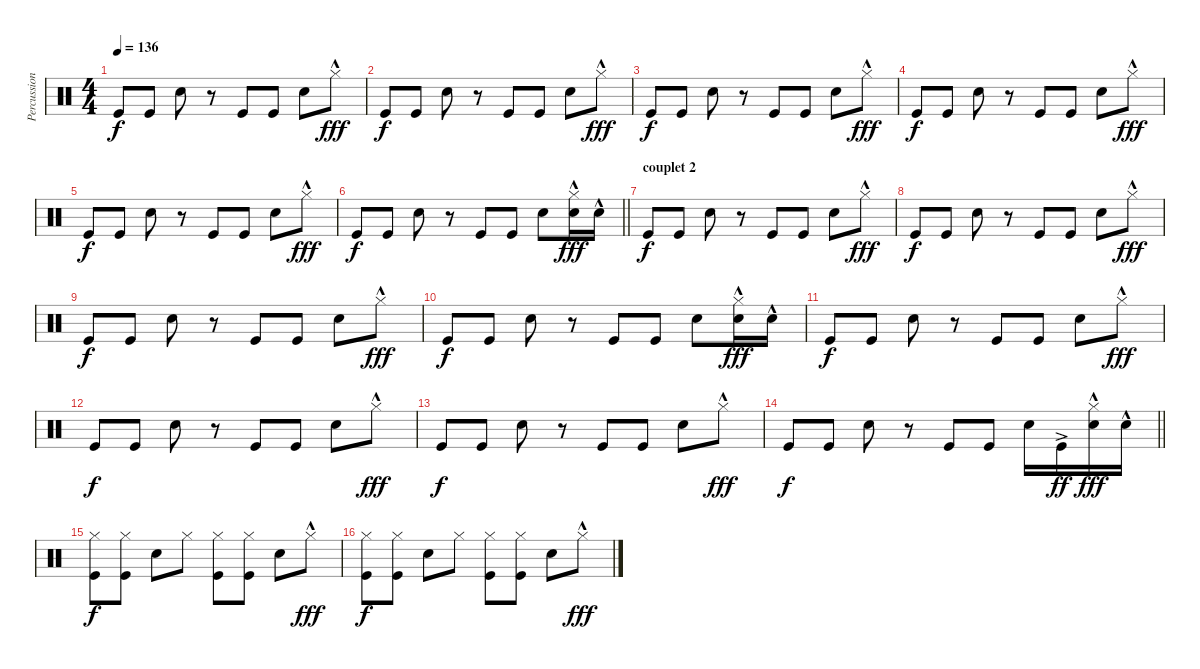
\track ("Percussions" "Percussion") {instrument percussion}
\staff {score}
\articulation defaults
\ts (4 4)
\tempo 136
\clef neutral
\ks c "Kick (hit)".8{dy f} "Kick (hit)".8 "Snare (hit) 2".8
r.8 "Kick (hit)".8 "Kick (hit)".8 "Snare (hit) 2".8 "Hi-Hat (closed)"{hac}.8{dy fff} |
"Kick (hit)".8{dy f} "Kick (hit)".8 "Snare (hit) 2".8 r.8 "Kick (hit)".8 "Kick (hit)".8 "Snare (hit) 2".8 "Hi-Hat (closed)"{hac}.8{dy fff} |
"Kick (hit)".8{dy f} "Kick (hit)".8 "Snare (hit) 2".8 r.8 "Kick (hit)".8 "Kick (hit)".8 "Snare (hit) 2".8 "Hi-Hat (closed)"{hac}.8{dy fff} |
"Kick (hit)".8{dy f} "Kick (hit)".8 "Snare (hit) 2".8 r.8 "Kick (hit)".8 "Kick (hit)".8 "Snare (hit) 2".8 "Hi-Hat (closed)"{hac}.8{dy fff} |
"Kick (hit)".8{dy f} "Kick (hit)".8 "Snare (hit) 2".8 r.8 "Kick (hit)".8 "Kick (hit)".8 "Snare (hit) 2".8 "Hi-Hat (closed)"{hac}.8{dy fff} |
\barLineRight lightlight "Kick (hit)".8{dy f} "Kick (hit)".8 "Snare (hit) 2".8
r.8 "Kick (hit)".8 "Kick (hit)".8 "Snare (hit) 2".8 ("Hi-Hat (closed)"{hac} "Snare (hit) 2"{hac}).16{dy fff} "Snare (hit) 2"{hac}.16 |
\section ("" "couplet 2")
"Kick (hit)".8{dy f} "Kick (hit)".8 "Snare (hit) 2".8 r.8 "Kick (hit)".8 "Kick (hit)".8 "Snare (hit) 2".8 "Hi-Hat (closed)"{hac}.8{dy fff} |
"Kick (hit)".8{dy f} "Kick (hit)".8 "Snare (hit) 2".8 r.8 "Kick (hit)".8 "Kick (hit)".8 "Snare (hit) 2".8 "Hi-Hat (closed)"{hac}.8{dy fff} |
"Kick (hit)".8{dy f} "Kick (hit)".8 "Snare (hit) 2".8 r.8 "Kick (hit)".8 "Kick (hit)".8 "Snare (hit) 2".8 "Hi-Hat (closed)"{hac}.8{dy fff} |
"Kick (hit)".8{dy f} "Kick (hit)".8 "Snare (hit) 2".8 r.8 "Kick (hit)".8 "Kick (hit)".8 "Snare (hit) 2".8 ("Hi-Hat (closed)"{hac} "Snare (hit) 2"{hac}).16{dy fff} "Snare (hit) 2"{hac}.16 |
"Kick (hit)".8{dy f} "Kick (hit)".8 "Snare (hit) 2".8 r.8 "Kick (hit)".8 "Kick (hit)".8 "Snare (hit) 2".8 "Hi-Hat (closed)"{hac}.8{dy fff} |
"Kick (hit)".8{dy f} "Kick (hit)".8 "Snare (hit) 2".8 r.8 "Kick (hit)".8 "Kick (hit)".8 "Snare (hit) 2".8 "Hi-Hat (closed)"{hac}.8{dy fff} |
"Kick (hit)".8{dy f} "Kick (hit)".8 "Snare (hit) 2".8 r.8 "Kick (hit)".8 "Kick (hit)".8 "Snare (hit) 2".8 "Hi-Hat (closed)"{hac}.8{dy fff} |
\barLineRight lightlight "Kick (hit)".8{dy f} "Kick (hit)".8 "Snare (hit) 2".8
r.8 "Kick (hit)".8 "Kick (hit)".8 "Snare (hit) 2".16 "Kick (hit)"{ac}.16{dy ff} ("Hi-Hat (closed)"{hac} "Snare (hit) 2"{hac}).16{dy fff} "Snare (hit) 2"{hac}.16 |
("Kick (hit)" "Hi-Hat (closed)").8{dy f} ("Kick (hit)" "Hi-Hat (closed)").8 "Snare (hit) 2".8 "Hi-Hat (closed)".8 ("Kick (hit)" "Hi-Hat (closed)").8 ("Kick (hit)" "Hi-Hat (closed)").8 "Snare (hit) 2".8 "Hi-Hat (closed)"{hac}.8{dy fff} |
("Kick (hit)" "Hi-Hat (closed)").8{dy f} ("Kick (hit)" "Hi-Hat (closed)").8 "Snare (hit) 2".8 "Hi-Hat (closed)".8 ("Kick (hit)" "Hi-Hat (closed)").8 ("Kick (hit)" "Hi-Hat (closed)").8 "Snare (hit) 2".8 "Hi-Hat (closed)"{hac}.8{dy fff}
